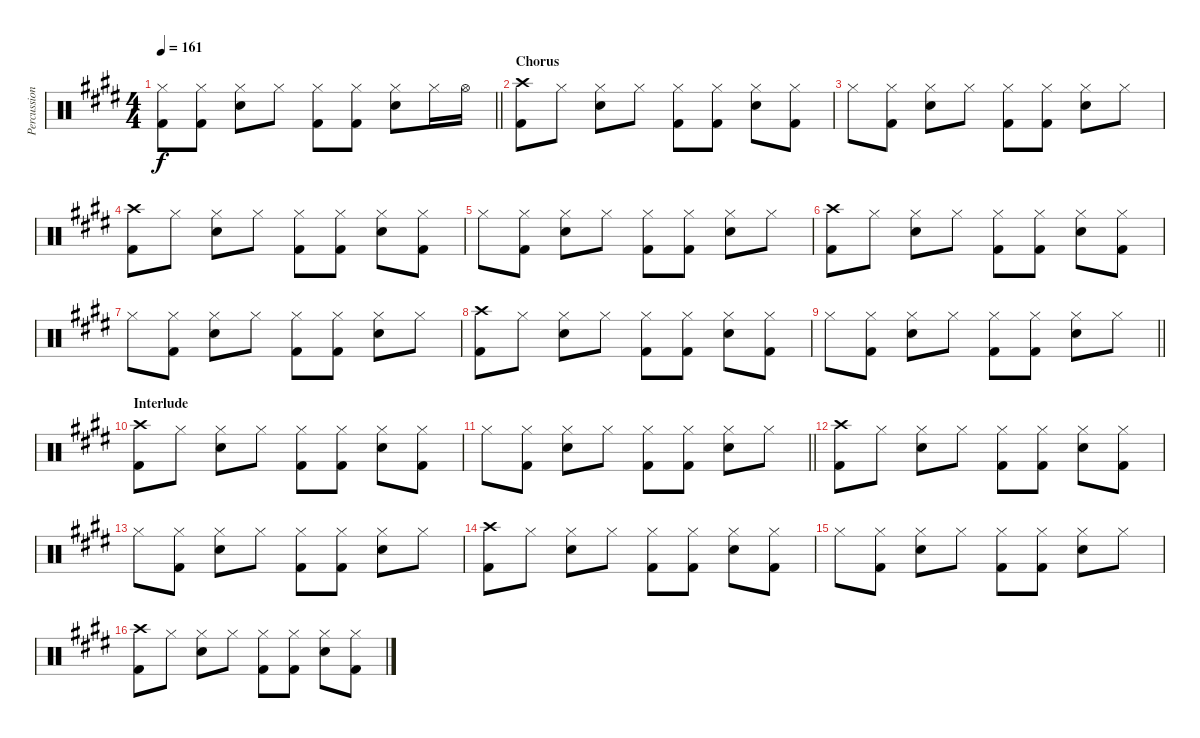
\track ("Percussion" "Percussion") {instrument percussion}
\staff {score}
\articulation defaults
\ts (4 4)
\tempo 161
\clef neutral
\barLineRight lightlight
\ks e
("Hi-Hat (closed)" "Kick (hit) 2").8{dy f} ("Hi-Hat (closed)" "Kick (hit) 2").8 ("Hi-Hat (closed)" "Snare (hit) 2").8 "Hi-Hat (closed)".8 ("Hi-Hat (closed)" "Kick (hit) 2").8 ("Hi-Hat (closed)" "Kick (hit) 2").8 ("Hi-Hat (closed)" "Snare (hit) 2").8 "Hi-Hat (closed)".16 "Hi-Hat (open)".16 |
\section ("" "Chorus")
("Crash high (hit)" "Kick (hit) 2").8 "Hi-Hat (closed)".8 ("Hi-Hat (closed)" "Snare (hit) 2").8 "Hi-Hat (closed)".8 ("Hi-Hat (closed)" "Kick (hit) 2").8 ("Hi-Hat (closed)" "Kick (hit) 2").8 ("Hi-Hat (closed)" "Snare (hit) 2").8 ("Hi-Hat (closed)" "Kick (hit) 2").8 |
"Hi-Hat (closed)".8 ("Hi-Hat (closed)" "Kick (hit) 2").8 ("Hi-Hat (closed)" "Snare (hit) 2").8 "Hi-Hat (closed)".8 ("Hi-Hat (closed)" "Kick (hit) 2").8 ("Hi-Hat (closed)" "Kick (hit) 2").8 ("Hi-Hat (closed)" "Snare (hit) 2").8 "Hi-Hat (closed)".8 |
("Crash high (hit)" "Kick (hit) 2").8 "Hi-Hat (closed)".8 ("Hi-Hat (closed)" "Snare (hit) 2").8 "Hi-Hat (closed)".8 ("Hi-Hat (closed)" "Kick (hit) 2").8 ("Hi-Hat (closed)" "Kick (hit) 2").8 ("Hi-Hat (closed)" "Snare (hit) 2").8 ("Hi-Hat (closed)" "Kick (hit) 2").8 |
"Hi-Hat (closed)".8 ("Hi-Hat (closed)" "Kick (hit) 2").8 ("Hi-Hat (closed)" "Snare (hit) 2").8 "Hi-Hat (closed)".8 ("Hi-Hat (closed)" "Kick (hit) 2").8 ("Hi-Hat (closed)" "Kick (hit) 2").8 ("Hi-Hat (closed)" "Snare (hit) 2").8 "Hi-Hat (closed)".8 |
("Crash high (hit)" "Kick (hit) 2").8 "Hi-Hat (closed)".8 ("Hi-Hat (closed)" "Snare (hit) 2").8 "Hi-Hat (closed)".8 ("Hi-Hat (closed)" "Kick (hit) 2").8 ("Hi-Hat (closed)" "Kick (hit) 2").8 ("Hi-Hat (closed)" "Snare (hit) 2").8 ("Hi-Hat (closed)" "Kick (hit) 2").8 |
"Hi-Hat (closed)".8 ("Hi-Hat (closed)" "Kick (hit) 2").8 ("Hi-Hat (closed)" "Snare (hit) 2").8 "Hi-Hat (closed)".8 ("Hi-Hat (closed)" "Kick (hit) 2").8 ("Hi-Hat (closed)" "Kick (hit) 2").8 ("Hi-Hat (closed)" "Snare (hit) 2").8 "Hi-Hat (closed)".8 |
("Crash high (hit)" "Kick (hit) 2").8 "Hi-Hat (closed)".8 ("Hi-Hat (closed)" "Snare (hit) 2").8 "Hi-Hat (closed)".8 ("Hi-Hat (closed)" "Kick (hit) 2").8 ("Hi-Hat (closed)" "Kick (hit) 2").8 ("Hi-Hat (closed)" "Snare (hit) 2").8 ("Hi-Hat (closed)" "Kick (hit) 2").8 |
\barLineRight lightlight "Hi-Hat (closed)".8
("Hi-Hat (closed)" "Kick (hit) 2").8 ("Hi-Hat (closed)" "Snare (hit) 2").8 "Hi-Hat (closed)".8 ("Hi-Hat (closed)" "Kick (hit) 2").8 ("Hi-Hat (closed)" "Kick (hit) 2").8 ("Hi-Hat (closed)" "Snare (hit) 2").8 "Hi-Hat (closed)".8 |
\section ("" "Interlude")
("Crash high (hit)" "Kick (hit) 2").8 "Hi-Hat (closed)".8 ("Hi-Hat (closed)" "Snare (hit) 2").8 "Hi-Hat (closed)".8 ("Hi-Hat (closed)" "Kick (hit) 2").8 ("Hi-Hat (closed)" "Kick (hit) 2").8 ("Hi-Hat (closed)" "Snare (hit) 2").8 ("Hi-Hat (closed)" "Kick (hit) 2").8 |
\barLineRight lightlight "Hi-Hat (closed)".8
("Hi-Hat (closed)" "Kick (hit) 2").8 ("Hi-Hat (closed)" "Snare (hit) 2").8 "Hi-Hat (closed)".8 ("Hi-Hat (closed)" "Kick (hit) 2").8 ("Hi-Hat (closed)" "Kick (hit) 2").8 ("Hi-Hat (closed)" "Snare (hit) 2").8 "Hi-Hat (closed)".8 |
("Crash high (hit)" "Kick (hit) 2").8 "Hi-Hat (closed)".8 ("Hi-Hat (closed)" "Snare (hit) 2").8 "Hi-Hat (closed)".8 ("Hi-Hat (closed)" "Kick (hit) 2").8 ("Hi-Hat (closed)" "Kick (hit) 2").8 ("Hi-Hat (closed)" "Snare (hit) 2").8 ("Hi-Hat (closed)" "Kick (hit) 2").8 |
"Hi-Hat (closed)".8 ("Hi-Hat (closed)" "Kick (hit) 2").8 ("Hi-Hat (closed)" "Snare (hit) 2").8 "Hi-Hat (closed)".8 ("Hi-Hat (closed)" "Kick (hit) 2").8 ("Hi-Hat (closed)" "Kick (hit) 2").8 ("Hi-Hat (closed)" "Snare (hit) 2").8 "Hi-Hat (closed)".8 |
("Crash high (hit)" "Kick (hit) 2").8 "Hi-Hat (closed)".8 ("Hi-Hat (closed)" "Snare (hit) 2").8 "Hi-Hat (closed)".8 ("Hi-Hat (closed)" "Kick (hit) 2").8 ("Hi-Hat (closed)" "Kick (hit) 2").8 ("Hi-Hat (closed)" "Snare (hit) 2").8 ("Hi-Hat (closed)" "Kick (hit) 2").8 |
"Hi-Hat (closed)".8 ("Hi-Hat (closed)" "Kick (hit) 2").8 ("Hi-Hat (closed)" "Snare (hit) 2").8 "Hi-Hat (closed)".8 ("Hi-Hat (closed)" "Kick (hit) 2").8 ("Hi-Hat (closed)" "Kick (hit) 2").8 ("Hi-Hat (closed)" "Snare (hit) 2").8 "Hi-Hat (closed)".8 |
("Crash high (hit)" "Kick (hit) 2").8 "Hi-Hat (closed)".8 ("Hi-Hat (closed)" "Snare (hit) 2").8 "Hi-Hat (closed)".8 ("Hi-Hat (closed)" "Kick (hit) 2").8 ("Hi-Hat (closed)" "Kick (hit) 2").8 ("Hi-Hat (closed)" "Snare (hit) 2").8 ("Hi-Hat (closed)" "Kick (hit) 2").8
